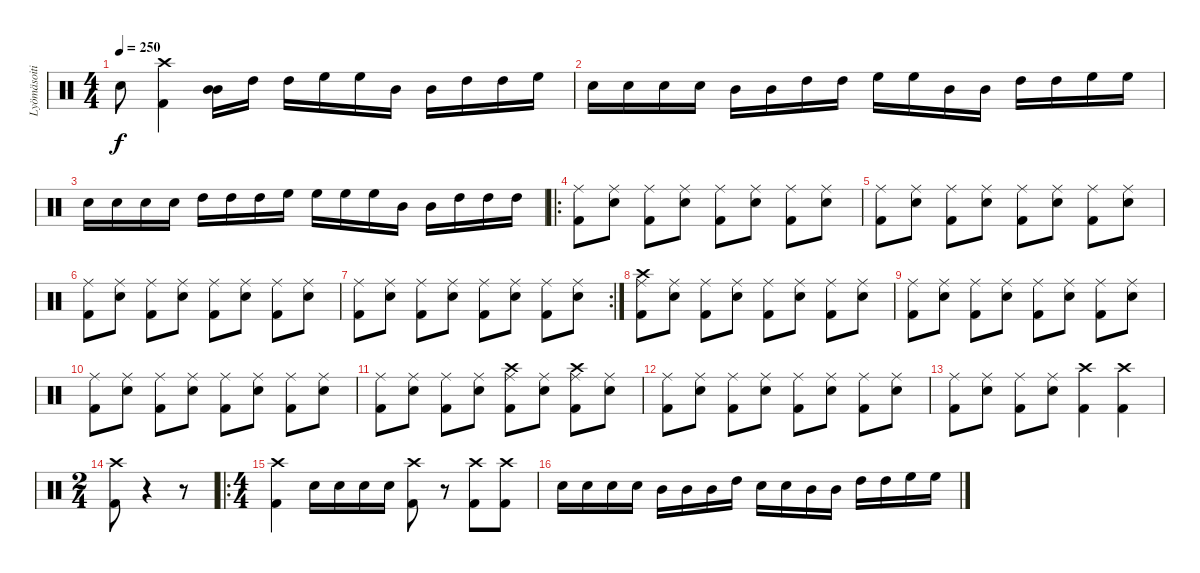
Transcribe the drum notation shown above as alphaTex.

\track ("Lyömäsoitin" "Lyömäsoiti") {instrument percussion}
\staff {score}
\articulation defaults
\ts (4 4)
\tempo 250
\clef neutral
\ks c "Electric Snare (hit)".8{dy f}
("Crash high (hit)" "Kick (hit) 2").4 ("Mid Tom (hit)" "Mid Tom (hit)").16 "High Tom (hit)".16 "High Tom (hit)".16 "High Floor Tom (hit)".16 "High Floor Tom (hit)".16 "Mid Tom (hit)".16 "Mid Tom (hit)".16 "High Tom (hit)".16 "High Tom (hit)".16 "High Floor Tom (hit)".16 |
"Electric Snare (hit)".16 "Electric Snare (hit)".16 "Electric Snare (hit)".16 "Electric Snare (hit)".16 "Mid Tom (hit)".16 "Mid Tom (hit)".16 "High Tom (hit)".16 "High Tom (hit)".16 "High Floor Tom (hit)".16 "High Floor Tom (hit)".16 "Mid Tom (hit)".16 "Mid Tom (hit)".16 "High Tom (hit)".16 "High Tom (hit)".16 "High Floor Tom (hit)".16 "High Floor Tom (hit)".16 |
"Electric Snare (hit)".16 "Electric Snare (hit)".16 "Electric Snare (hit)".16 "Electric Snare (hit)".16 "High Tom (hit)".16 "High Tom (hit)".16 "High Tom (hit)".16 "High Floor Tom (hit)".16 "High Floor Tom (hit)".16 "High Floor Tom (hit)".16 "High Floor Tom (hit)".16 "Mid Tom (hit)".16 "Mid Tom (hit)".16 "High Tom (hit)".16 "High Tom (hit)".16 "High Tom (hit)".16 |
\ro
("Ride (middle)" "Kick (hit) 2").8 ("Ride (middle)" "Electric Snare (hit)").8 ("Ride (middle)" "Kick (hit) 2").8 ("Ride (middle)" "Electric Snare (hit)").8 ("Ride (middle)" "Kick (hit) 2").8 ("Ride (middle)" "Electric Snare (hit)").8 ("Ride (middle)" "Kick (hit) 2").8 ("Ride (middle)" "Electric Snare (hit)").8 |
("Ride (middle)" "Kick (hit) 2").8 ("Ride (middle)" "Electric Snare (hit)").8 ("Ride (middle)" "Kick (hit) 2").8 ("Ride (middle)" "Electric Snare (hit)").8 ("Ride (middle)" "Kick (hit) 2").8 ("Ride (middle)" "Electric Snare (hit)").8 ("Ride (middle)" "Kick (hit) 2").8 ("Ride (middle)" "Electric Snare (hit)").8 |
("Ride (middle)" "Kick (hit) 2").8 ("Ride (middle)" "Electric Snare (hit)").8 ("Ride (middle)" "Kick (hit) 2").8 ("Ride (middle)" "Electric Snare (hit)").8 ("Ride (middle)" "Kick (hit) 2").8 ("Ride (middle)" "Electric Snare (hit)").8 ("Ride (middle)" "Kick (hit) 2").8 ("Ride (middle)" "Electric Snare (hit)").8 |
\rc 2
("Ride (middle)" "Kick (hit) 2").8 ("Ride (middle)" "Electric Snare (hit)").8 ("Ride (middle)" "Kick (hit) 2").8 ("Ride (middle)" "Electric Snare (hit)").8 ("Ride (middle)" "Kick (hit) 2").8 ("Ride (middle)" "Electric Snare (hit)").8 ("Ride (middle)" "Kick (hit) 2").8 ("Ride (middle)" "Electric Snare (hit)").8 |
("Crash high (hit)" "Ride (middle)" "Kick (hit) 2").8 ("Ride (middle)" "Electric Snare (hit)").8 ("Ride (middle)" "Kick (hit) 2").8 ("Ride (middle)" "Electric Snare (hit)").8 ("Ride (middle)" "Kick (hit) 2").8 ("Ride (middle)" "Electric Snare (hit)").8 ("Ride (middle)" "Kick (hit) 2").8 ("Ride (middle)" "Electric Snare (hit)").8 |
("Ride (middle)" "Kick (hit) 2").8 ("Ride (middle)" "Electric Snare (hit)").8 ("Ride (middle)" "Kick (hit) 2").8 ("Ride (middle)" "Electric Snare (hit)").8 ("Ride (middle)" "Kick (hit) 2").8 ("Ride (middle)" "Electric Snare (hit)").8 ("Ride (middle)" "Kick (hit) 2").8 ("Ride (middle)" "Electric Snare (hit)").8 |
("Ride (middle)" "Kick (hit) 2").8 ("Ride (middle)" "Electric Snare (hit)").8 ("Ride (middle)" "Kick (hit) 2").8 ("Ride (middle)" "Electric Snare (hit)").8 ("Ride (middle)" "Kick (hit) 2").8 ("Ride (middle)" "Electric Snare (hit)").8 ("Ride (middle)" "Kick (hit) 2").8 ("Ride (middle)" "Electric Snare (hit)").8 |
("Ride (middle)" "Kick (hit) 2").8 ("Ride (middle)" "Electric Snare (hit)").8 ("Ride (middle)" "Kick (hit) 2").8 ("Ride (middle)" "Electric Snare (hit)").8 ("Crash high (hit)" "Ride (middle)" "Kick (hit) 2").8 ("Ride (middle)" "Electric Snare (hit)").8 ("Crash high (hit)" "Ride (middle)" "Kick (hit) 2").8 ("Ride (middle)" "Electric Snare (hit)").8 |
("Ride (middle)" "Kick (hit) 2").8 ("Ride (middle)" "Electric Snare (hit)").8 ("Ride (middle)" "Kick (hit) 2").8 ("Ride (middle)" "Electric Snare (hit)").8 ("Ride (middle)" "Kick (hit) 2").8 ("Ride (middle)" "Electric Snare (hit)").8 ("Ride (middle)" "Kick (hit) 2").8 ("Ride (middle)" "Electric Snare (hit)").8 |
("Ride (middle)" "Kick (hit) 2").8 ("Ride (middle)" "Electric Snare (hit)").8 ("Ride (middle)" "Kick (hit) 2").8 ("Ride (middle)" "Electric Snare (hit)").8 ("Crash high (hit)" "Kick (hit) 2").4 ("Crash high (hit)" "Kick (hit) 2").4 |
\ts (2 4)
("Crash high (hit)" "Kick (hit) 2").8 r.4 r.8 |
\ro
\ts (4 4)
("Crash high (hit)" "Kick (hit) 2").4 "Electric Snare (hit)".16 "Electric Snare (hit)".16 "Electric Snare (hit)".16 "Electric Snare (hit)".16 ("Crash high (hit)" "Kick (hit) 2").8 r.8 ("Crash high (hit)" "Kick (hit) 2").8 ("Crash high (hit)" "Kick (hit) 2").8 |
"Electric Snare (hit)".16 "Electric Snare (hit)".16 "Electric Snare (hit)".16 "Electric Snare (hit)".16 "Mid Tom (hit)".16 "Mid Tom (hit)".16 "Mid Tom (hit)".16 "High Tom (hit)".16 "Electric Snare (hit)".16 "Electric Snare (hit)".16 "Mid Tom (hit)".16 "Mid Tom (hit)".16 "High Tom (hit)".16 "High Tom (hit)".16 "High Floor Tom (hit)".16 "High Floor Tom (hit)".16
